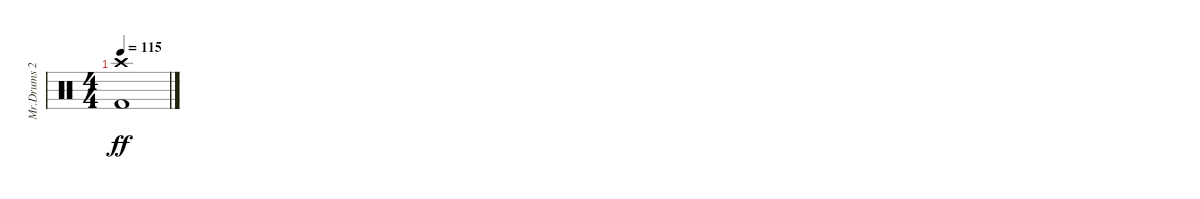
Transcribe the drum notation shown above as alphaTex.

\track ("Mr.Drums 2" "Mr.Drums 2") {instrument percussion}
\staff {score}
\articulation defaults
\ts (4 4)
\tempo 115
\clef neutral
\ks c
("Crash high (hit)" "Kick (hit) 2").1{dy ff}
